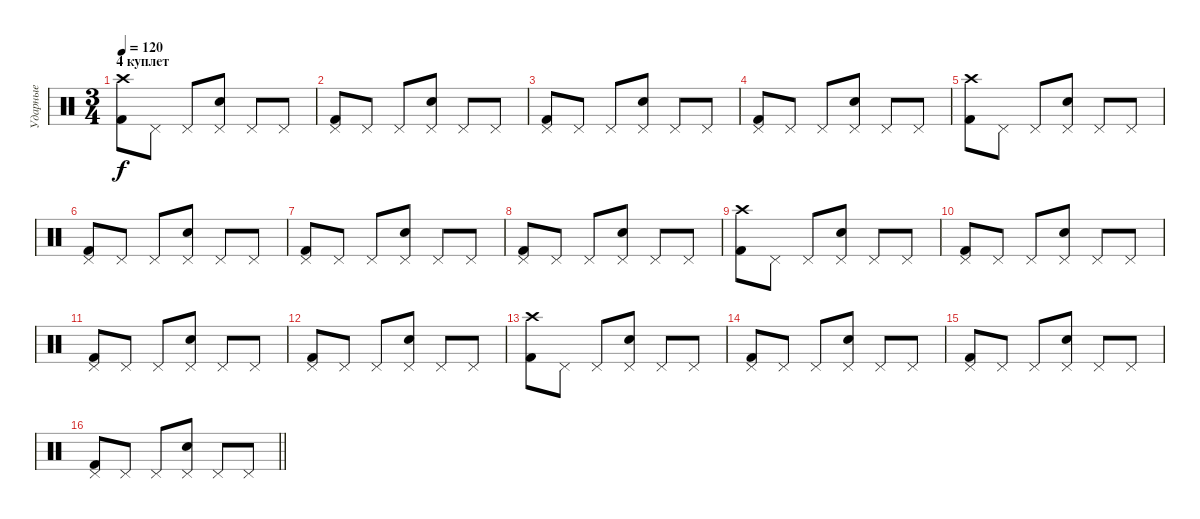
\track ("Ударные" "Ударные") {instrument percussion}
\staff {score}
\articulation defaults
\ts (3 4)
\section ("" "4 куплет")
\tempo 120
\clef neutral
\ks c
("Crash high (hit)" "Kick (hit) 2").8{dy f} "Pedal Hi-Hat (hit)".8 "Pedal Hi-Hat (hit)".8 ("Pedal Hi-Hat (hit)" "Snare (hit) 2").8 "Pedal Hi-Hat (hit)".8 "Pedal Hi-Hat (hit)".8 |
("Pedal Hi-Hat (hit)" "Kick (hit) 2").8 "Pedal Hi-Hat (hit)".8 "Pedal Hi-Hat (hit)".8 ("Pedal Hi-Hat (hit)" "Snare (hit) 2").8 "Pedal Hi-Hat (hit)".8 "Pedal Hi-Hat (hit)".8 |
("Pedal Hi-Hat (hit)" "Kick (hit) 2").8 "Pedal Hi-Hat (hit)".8 "Pedal Hi-Hat (hit)".8 ("Pedal Hi-Hat (hit)" "Snare (hit) 2").8 "Pedal Hi-Hat (hit)".8 "Pedal Hi-Hat (hit)".8 |
("Pedal Hi-Hat (hit)" "Kick (hit) 2").8 "Pedal Hi-Hat (hit)".8 "Pedal Hi-Hat (hit)".8 ("Pedal Hi-Hat (hit)" "Snare (hit) 2").8 "Pedal Hi-Hat (hit)".8 "Pedal Hi-Hat (hit)".8 |
("Crash high (hit)" "Kick (hit) 2").8 "Pedal Hi-Hat (hit)".8 "Pedal Hi-Hat (hit)".8 ("Pedal Hi-Hat (hit)" "Snare (hit) 2").8 "Pedal Hi-Hat (hit)".8 "Pedal Hi-Hat (hit)".8 |
("Pedal Hi-Hat (hit)" "Kick (hit) 2").8 "Pedal Hi-Hat (hit)".8 "Pedal Hi-Hat (hit)".8 ("Pedal Hi-Hat (hit)" "Snare (hit) 2").8 "Pedal Hi-Hat (hit)".8 "Pedal Hi-Hat (hit)".8 |
("Pedal Hi-Hat (hit)" "Kick (hit) 2").8 "Pedal Hi-Hat (hit)".8 "Pedal Hi-Hat (hit)".8 ("Pedal Hi-Hat (hit)" "Snare (hit) 2").8 "Pedal Hi-Hat (hit)".8 "Pedal Hi-Hat (hit)".8 |
("Pedal Hi-Hat (hit)" "Kick (hit) 2").8 "Pedal Hi-Hat (hit)".8 "Pedal Hi-Hat (hit)".8 ("Pedal Hi-Hat (hit)" "Snare (hit) 2").8 "Pedal Hi-Hat (hit)".8 "Pedal Hi-Hat (hit)".8 |
("Crash high (hit)" "Kick (hit) 2").8 "Pedal Hi-Hat (hit)".8 "Pedal Hi-Hat (hit)".8 ("Pedal Hi-Hat (hit)" "Snare (hit) 2").8 "Pedal Hi-Hat (hit)".8 "Pedal Hi-Hat (hit)".8 |
("Pedal Hi-Hat (hit)" "Kick (hit) 2").8 "Pedal Hi-Hat (hit)".8 "Pedal Hi-Hat (hit)".8 ("Pedal Hi-Hat (hit)" "Snare (hit) 2").8 "Pedal Hi-Hat (hit)".8 "Pedal Hi-Hat (hit)".8 |
("Pedal Hi-Hat (hit)" "Kick (hit) 2").8 "Pedal Hi-Hat (hit)".8 "Pedal Hi-Hat (hit)".8 ("Pedal Hi-Hat (hit)" "Snare (hit) 2").8 "Pedal Hi-Hat (hit)".8 "Pedal Hi-Hat (hit)".8 |
("Pedal Hi-Hat (hit)" "Kick (hit) 2").8 "Pedal Hi-Hat (hit)".8 "Pedal Hi-Hat (hit)".8 ("Pedal Hi-Hat (hit)" "Snare (hit) 2").8 "Pedal Hi-Hat (hit)".8 "Pedal Hi-Hat (hit)".8 |
("Crash high (hit)" "Kick (hit) 2").8 "Pedal Hi-Hat (hit)".8 "Pedal Hi-Hat (hit)".8 ("Pedal Hi-Hat (hit)" "Snare (hit) 2").8 "Pedal Hi-Hat (hit)".8 "Pedal Hi-Hat (hit)".8 |
("Pedal Hi-Hat (hit)" "Kick (hit) 2").8 "Pedal Hi-Hat (hit)".8 "Pedal Hi-Hat (hit)".8 ("Pedal Hi-Hat (hit)" "Snare (hit) 2").8 "Pedal Hi-Hat (hit)".8 "Pedal Hi-Hat (hit)".8 |
("Pedal Hi-Hat (hit)" "Kick (hit) 2").8 "Pedal Hi-Hat (hit)".8 "Pedal Hi-Hat (hit)".8 ("Pedal Hi-Hat (hit)" "Snare (hit) 2").8 "Pedal Hi-Hat (hit)".8 "Pedal Hi-Hat (hit)".8 |
\barLineRight lightlight
("Pedal Hi-Hat (hit)" "Kick (hit) 2").8 "Pedal Hi-Hat (hit)".8 "Pedal Hi-Hat (hit)".8 ("Pedal Hi-Hat (hit)" "Snare (hit) 2").8 "Pedal Hi-Hat (hit)".8 "Pedal Hi-Hat (hit)".8
